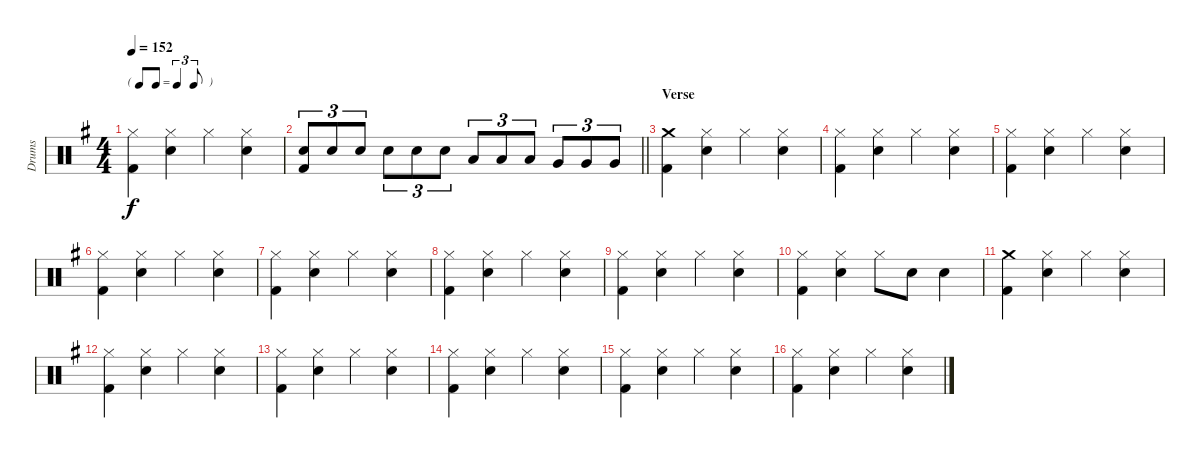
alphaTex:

\track ("Drums" "Drums") {instrument percussion}
\staff {score}
\articulation defaults
\ts (4 4)
\tf triplet8th
\tempo 152
\clef neutral
\ks g
("Hi-Hat (closed)" "Kick (hit) 2").4{dy f} ("Hi-Hat (closed)" "Snare (hit) 2").4 "Hi-Hat (closed)".4 ("Hi-Hat (closed)" "Snare (hit) 2").4 |
\barLineRight lightlight
("Snare (hit) 2" "Kick (hit) 2").8{tu (3 2)} "Snare (hit) 2".8{tu (3 2)} "Snare (hit) 2".8{tu (3 2)} "Snare (hit) 2".8{tu (3 2)} "Snare (hit) 2".8{tu (3 2)} "Snare (hit) 2".8{tu (3 2)} "Low Tom (hit)".8{tu (3 2)} "Low Tom (hit)".8{tu (3 2)} "Low Tom (hit)".8{tu (3 2)} "Very Low Tom (hit)".8{tu (3 2)} "Very Low Tom (hit)".8{tu (3 2)} "Very Low Tom (hit)".8{tu (3 2)} |
\section ("" "Verse")
("Crash medium (hit)" "Kick (hit) 2").4 ("Hi-Hat (closed)" "Snare (hit) 2").4 "Hi-Hat (closed)".4 ("Hi-Hat (closed)" "Snare (hit) 2").4 |
("Hi-Hat (closed)" "Kick (hit) 2").4 ("Hi-Hat (closed)" "Snare (hit) 2").4 "Hi-Hat (closed)".4 ("Hi-Hat (closed)" "Snare (hit) 2").4 |
("Hi-Hat (closed)" "Kick (hit) 2").4 ("Hi-Hat (closed)" "Snare (hit) 2").4 "Hi-Hat (closed)".4 ("Hi-Hat (closed)" "Snare (hit) 2").4 |
("Hi-Hat (closed)" "Kick (hit) 2").4 ("Hi-Hat (closed)" "Snare (hit) 2").4 "Hi-Hat (closed)".4 ("Hi-Hat (closed)" "Snare (hit) 2").4 |
("Hi-Hat (closed)" "Kick (hit) 2").4 ("Hi-Hat (closed)" "Snare (hit) 2").4 "Hi-Hat (closed)".4 ("Hi-Hat (closed)" "Snare (hit) 2").4 |
("Hi-Hat (closed)" "Kick (hit) 2").4 ("Hi-Hat (closed)" "Snare (hit) 2").4 "Hi-Hat (closed)".4 ("Hi-Hat (closed)" "Snare (hit) 2").4 |
("Hi-Hat (closed)" "Kick (hit) 2").4 ("Hi-Hat (closed)" "Snare (hit) 2").4 "Hi-Hat (closed)".4 ("Hi-Hat (closed)" "Snare (hit) 2").4 |
("Hi-Hat (closed)" "Kick (hit) 2").4 ("Hi-Hat (closed)" "Snare (hit) 2").4 "Hi-Hat (closed)".8 "Snare (hit) 2".8 "Snare (hit) 2".4 |
("Crash medium (hit)" "Kick (hit) 2").4 ("Hi-Hat (closed)" "Snare (hit) 2").4 "Hi-Hat (closed)".4 ("Hi-Hat (closed)" "Snare (hit) 2").4 |
("Hi-Hat (closed)" "Kick (hit) 2").4 ("Hi-Hat (closed)" "Snare (hit) 2").4 "Hi-Hat (closed)".4 ("Hi-Hat (closed)" "Snare (hit) 2").4 |
("Hi-Hat (closed)" "Kick (hit) 2").4 ("Hi-Hat (closed)" "Snare (hit) 2").4 "Hi-Hat (closed)".4 ("Hi-Hat (closed)" "Snare (hit) 2").4 |
("Hi-Hat (closed)" "Kick (hit) 2").4 ("Hi-Hat (closed)" "Snare (hit) 2").4 "Hi-Hat (closed)".4 ("Hi-Hat (closed)" "Snare (hit) 2").4 |
("Hi-Hat (closed)" "Kick (hit) 2").4 ("Hi-Hat (closed)" "Snare (hit) 2").4 "Hi-Hat (closed)".4 ("Hi-Hat (closed)" "Snare (hit) 2").4 |
("Hi-Hat (closed)" "Kick (hit) 2").4 ("Hi-Hat (closed)" "Snare (hit) 2").4 "Hi-Hat (closed)".4 ("Hi-Hat (closed)" "Snare (hit) 2").4
